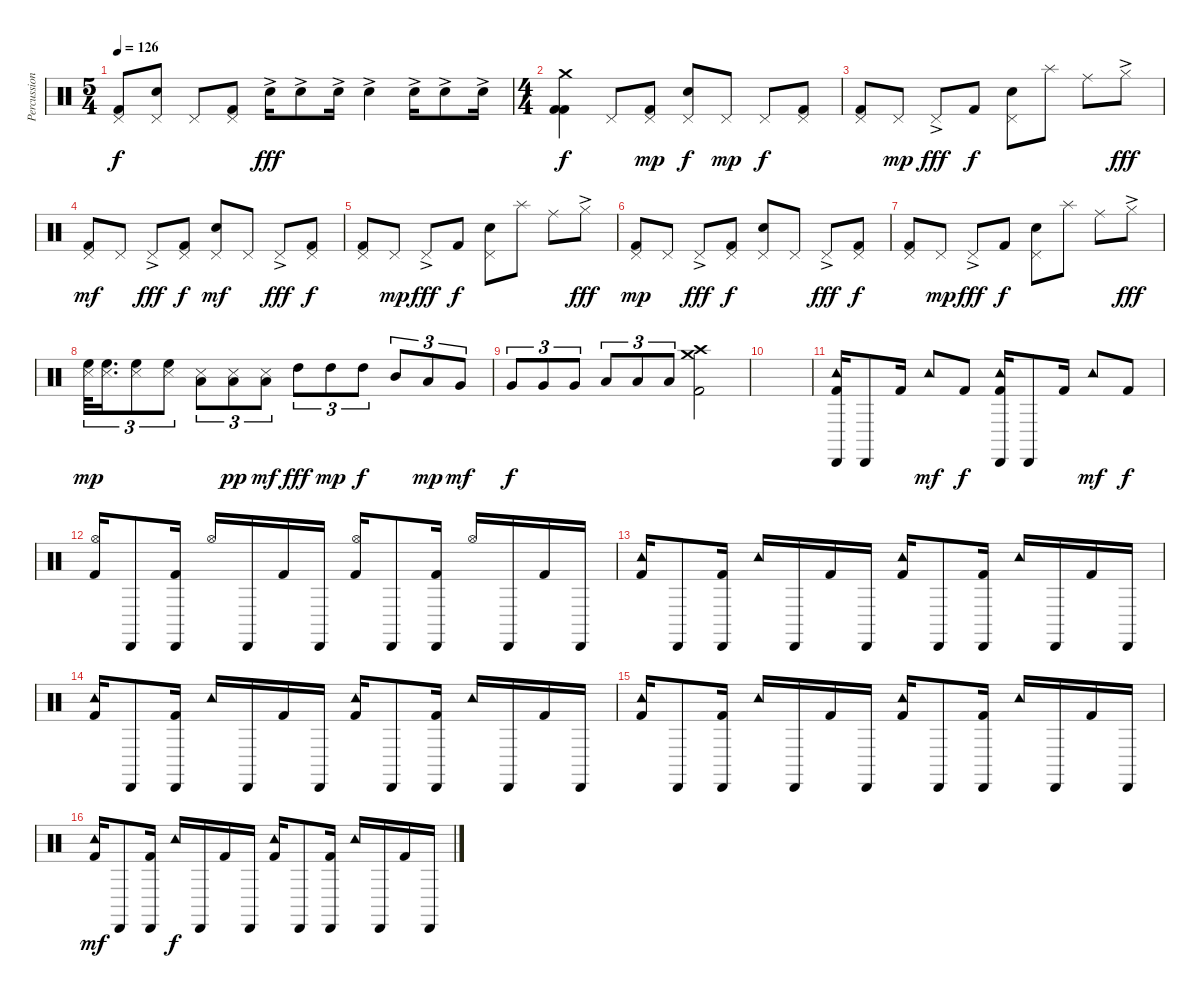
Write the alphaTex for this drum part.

\track ("Percussion" "Percussion") {instrument percussion}
\staff {score}
\articulation defaults
\ts (5 4)
\tempo 126
\clef neutral
\ks c
("Pedal Hi-Hat (hit)" "Kick (hit) 2").8{dy f} ("Pedal Hi-Hat (hit)" "Electric Snare (hit)").8 "Pedal Hi-Hat (hit)".8 ("Pedal Hi-Hat (hit)" "Kick (hit) 2").8 "Electric Snare (hit)"{ac}.16{dy fff} "Electric Snare (hit)"{ac}.8 "Electric Snare (hit)"{ac}.16 "Electric Snare (hit)"{ac}.4 "Electric Snare (hit)"{ac}.16 "Electric Snare (hit)"{ac}.8 "Electric Snare (hit)"{ac}.16 |
\ts (4 4)
("Crash medium (hit)" "Kick (hit) 2" "Kick (hit) 2").4{dy f} "Pedal Hi-Hat (hit)".8 ("Pedal Hi-Hat (hit)" "Kick (hit) 2").8{dy mp} ("Pedal Hi-Hat (hit)" "Electric Snare (hit)").8{dy f} "Pedal Hi-Hat (hit)".8{dy mp} "Pedal Hi-Hat (hit)".8{dy f} ("Pedal Hi-Hat (hit)" "Kick (hit) 2").8 |
("Pedal Hi-Hat (hit)" "Kick (hit) 2").8 "Pedal Hi-Hat (hit)".8{dy mp} "Pedal Hi-Hat (hit)"{ac}.8{dy fff} "Kick (hit) 2".8{dy f} ("Pedal Hi-Hat (hit)" "Electric Snare (hit)").8 "Splash (hit)".8 "Ride (middle)".8 "Hi-Hat (closed)"{ac}.8{dy fff} |
("Pedal Hi-Hat (hit)" "Kick (hit) 2").8{dy mf} "Pedal Hi-Hat (hit)".8 "Pedal Hi-Hat (hit)"{ac}.8{dy fff} ("Pedal Hi-Hat (hit)" "Kick (hit) 2").8{dy f} ("Pedal Hi-Hat (hit)" "Electric Snare (hit)").8{dy mf} "Pedal Hi-Hat (hit)".8 "Pedal Hi-Hat (hit)"{ac}.8{dy fff} ("Pedal Hi-Hat (hit)" "Kick (hit) 2").8{dy f} |
("Pedal Hi-Hat (hit)" "Kick (hit) 2").8 "Pedal Hi-Hat (hit)".8{dy mp} "Pedal Hi-Hat (hit)"{ac}.8{dy fff} "Kick (hit) 2".8{dy f} ("Pedal Hi-Hat (hit)" "Electric Snare (hit)").8 "Splash (hit)".8 "Ride (middle)".8 "Hi-Hat (closed)"{ac}.8{dy fff} |
("Pedal Hi-Hat (hit)" "Kick (hit) 2").8{dy mp} "Pedal Hi-Hat (hit)".8 "Pedal Hi-Hat (hit)"{ac}.8{dy fff} ("Pedal Hi-Hat (hit)" "Kick (hit) 2").8{dy f} ("Pedal Hi-Hat (hit)" "Electric Snare (hit)").8 "Pedal Hi-Hat (hit)".8 "Pedal Hi-Hat (hit)"{ac}.8{dy fff} ("Pedal Hi-Hat (hit)" "Kick (hit) 2").8{dy f} |
("Pedal Hi-Hat (hit)" "Kick (hit) 2").8 "Pedal Hi-Hat (hit)".8{dy mp} "Pedal Hi-Hat (hit)"{ac}.8{dy fff} "Kick (hit) 2".8{dy f} ("Pedal Hi-Hat (hit)" "Electric Snare (hit)").8 "Splash (hit)".8 "Ride (middle)".8 "Hi-Hat (closed)"{ac}.8{dy fff} |
("High Floor Tom (hit)" "Snare (side stick) 3").32{tu (3 2) dy mp} ("High Floor Tom (hit)" "Snare (side stick) 3").16{d tu (3 2)} ("High Floor Tom (hit)" "Snare (side stick) 3").8{tu (3 2)} ("High Floor Tom (hit)" "Snare (side stick) 3").8{tu (3 2)} ("Low Tom (hit)" "Snare (side stick) 3").8{tu (3 2)} ("Low Tom (hit)" "Snare (side stick) 3").8{tu (3 2) dy pp} ("Low Tom (hit)" "Snare (side stick) 3").8{tu (3 2) dy mf} "High Tom (hit)".8{tu (3 2) dy fff} "High Tom (hit)".8{tu (3 2) dy mp} "High Tom (hit)".8{tu (3 2) dy f} "Mid Tom (hit)".8{tu (3 2)} "Low Tom (hit)".8{tu (3 2) dy mp} "Very Low Tom (hit)".8{tu (3 2) dy mf} |
"Very Low Tom (hit)".8{tu (3 2) dy f} "Very Low Tom (hit)".8{tu (3 2)} "Very Low Tom (hit)".8{tu (3 2)} "Low Floor Tom (hit)".8{tu (3 2)} "Low Floor Tom (hit)".8{tu (3 2)} "Low Floor Tom (hit)".8{tu (3 2)} ("Crash medium (hit)" "Crash high (hit)" "Kick (hit) 2").2 |
|
("Tambourine (hit)" "Cabasa (hit)" "Kick (hit) 2").16 "Cabasa (hit)".8 "Kick (hit) 2".16 "Tambourine (hit)".8{dy mf} "Kick (hit) 2".8{dy f} ("Tambourine (hit)" "Cabasa (hit)" "Kick (hit) 2").16 "Cabasa (hit)".8 "Kick (hit) 2".16 "Tambourine (hit)".8{dy mf} "Kick (hit) 2".8{dy f} |
("Hi-Hat (open)" "Kick (hit) 2").16 "Cabasa (hit)".8 ("Cabasa (hit)" "Kick (hit) 2").16 "Hi-Hat (open)".16 "Cabasa (hit)".16 "Kick (hit) 2".16 "Cabasa (hit)".16 ("Hi-Hat (open)" "Kick (hit) 2").16 "Cabasa (hit)".8 ("Cabasa (hit)" "Kick (hit) 2").16 "Hi-Hat (open)".16 "Cabasa (hit)".16 "Kick (hit) 2".16 "Cabasa (hit)".16 |
("Tambourine (hit)" "Kick (hit) 2").16 "Cabasa (hit)".8 ("Cabasa (hit)" "Kick (hit) 2").16 "Tambourine (hit)".16 "Cabasa (hit)".16 "Kick (hit) 2".16 "Cabasa (hit)".16 ("Tambourine (hit)" "Kick (hit) 2").16 "Cabasa (hit)".8 ("Cabasa (hit)" "Kick (hit) 2").16 "Tambourine (hit)".16 "Cabasa (hit)".16 "Kick (hit) 2".16 "Cabasa (hit)".16 |
("Tambourine (hit)" "Kick (hit) 2").16 "Cabasa (hit)".8 ("Cabasa (hit)" "Kick (hit) 2").16 "Tambourine (hit)".16 "Cabasa (hit)".16 "Kick (hit) 2".16 "Cabasa (hit)".16 ("Tambourine (hit)" "Kick (hit) 2").16 "Cabasa (hit)".8 ("Cabasa (hit)" "Kick (hit) 2").16 "Tambourine (hit)".16 "Cabasa (hit)".16 "Kick (hit) 2".16 "Cabasa (hit)".16 |
("Tambourine (hit)" "Kick (hit) 2").16 "Cabasa (hit)".8 ("Cabasa (hit)" "Kick (hit) 2").16 "Tambourine (hit)".16 "Cabasa (hit)".16 "Kick (hit) 2".16 "Cabasa (hit)".16 ("Tambourine (hit)" "Kick (hit) 2").16 "Cabasa (hit)".8 ("Cabasa (hit)" "Kick (hit) 2").16 "Tambourine (hit)".16 "Cabasa (hit)".16 "Kick (hit) 2".16 "Cabasa (hit)".16 |
("Tambourine (hit)" "Kick (hit) 2").16{dy mf} "Cabasa (hit)".8 ("Cabasa (hit)" "Kick (hit) 2").16 "Tambourine (hit)".16{dy f} "Cabasa (hit)".16 "Kick (hit) 2".16 "Cabasa (hit)".16 ("Tambourine (hit)" "Kick (hit) 2").16 "Cabasa (hit)".8 ("Cabasa (hit)" "Kick (hit) 2").16 "Tambourine (hit)".16 "Cabasa (hit)".16 "Kick (hit) 2".16 "Cabasa (hit)".16
